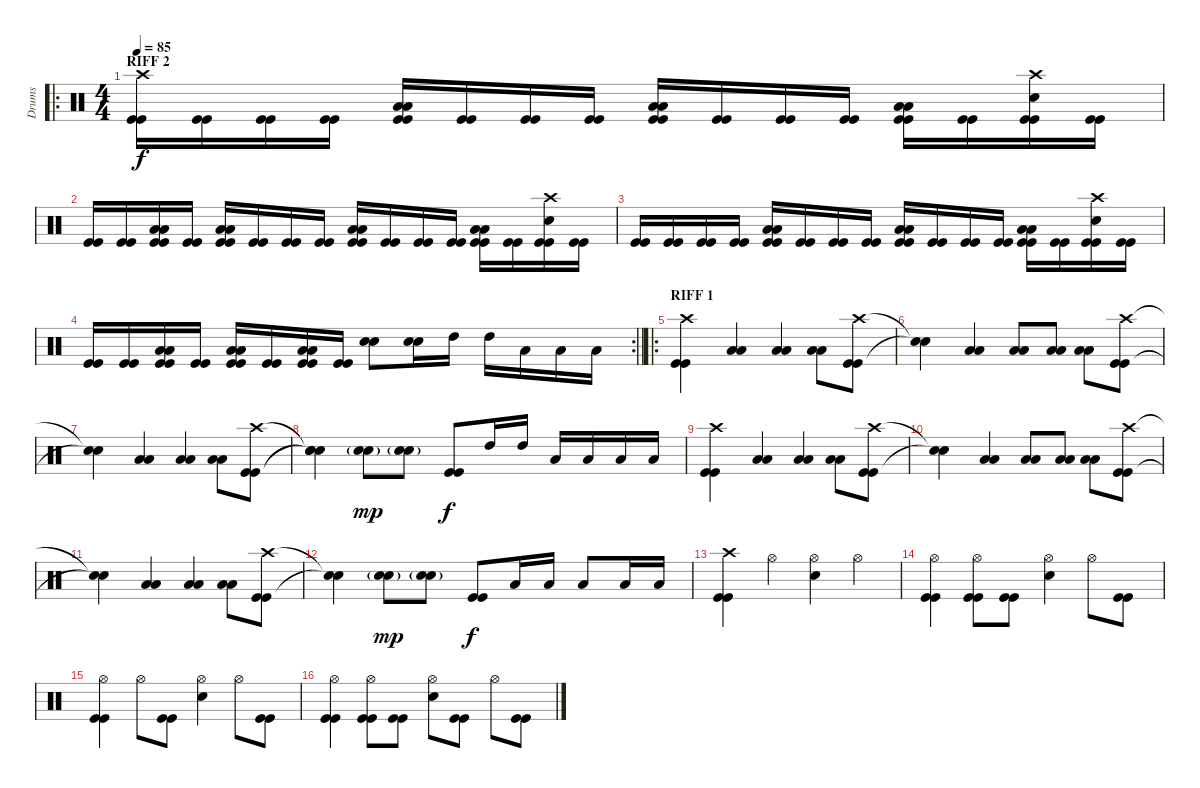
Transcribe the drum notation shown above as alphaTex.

\track ("Drums" "Drums") {instrument percussion}
\staff {score}
\articulation defaults
\ro
\ts (4 4)
\section ("" "RIFF 2")
\tempo 85
\clef neutral
\ks c
("Crash high (hit)" "Kick (hit)" "Kick (hit)").16{dy f} ("Kick (hit)" "Kick (hit)").16 ("Kick (hit)" "Kick (hit)").16 ("Kick (hit)" "Kick (hit)").16 ("Low Floor Tom (hit)" "Low Tom (hit)" "Kick (hit)" "Kick (hit)").16 ("Kick (hit)" "Kick (hit)").16 ("Kick (hit)" "Kick (hit)").16 ("Kick (hit)" "Kick (hit)").16 ("Low Floor Tom (hit)" "Low Tom (hit)" "Kick (hit)" "Kick (hit)").16 ("Kick (hit)" "Kick (hit)").16 ("Kick (hit)" "Kick (hit)").16 ("Kick (hit)" "Kick (hit)").16 ("Low Floor Tom (hit)" "Low Tom (hit)" "Kick (hit)" "Kick (hit)").16 ("Kick (hit)" "Kick (hit)").16 ("Crash high (hit)" "Snare (hit) 2" "Kick (hit)" "Kick (hit)").16 ("Kick (hit)" "Kick (hit)").16 |
("Kick (hit)" "Kick (hit)").16 ("Kick (hit)" "Kick (hit)").16 ("Low Floor Tom (hit)" "Low Tom (hit)" "Kick (hit)" "Kick (hit)").16 ("Kick (hit)" "Kick (hit)").16 ("Low Floor Tom (hit)" "Low Tom (hit)" "Kick (hit)" "Kick (hit)").16 ("Kick (hit)" "Kick (hit)").16 ("Kick (hit)" "Kick (hit)").16 ("Kick (hit)" "Kick (hit)").16 ("Low Floor Tom (hit)" "Low Tom (hit)" "Kick (hit)" "Kick (hit)").16 ("Kick (hit)" "Kick (hit)").16 ("Kick (hit)" "Kick (hit)").16 ("Kick (hit)" "Kick (hit)").16 ("Low Floor Tom (hit)" "Low Tom (hit)" "Kick (hit)" "Kick (hit)").16 ("Kick (hit)" "Kick (hit)").16 ("Crash high (hit)" "Snare (hit) 2" "Kick (hit)" "Kick (hit)").16 ("Kick (hit)" "Kick (hit)").16 |
("Kick (hit)" "Kick (hit)").16 ("Kick (hit)" "Kick (hit)").16 ("Kick (hit)" "Kick (hit)").16 ("Kick (hit)" "Kick (hit)").16 ("Low Floor Tom (hit)" "Low Tom (hit)" "Kick (hit)" "Kick (hit)").16 ("Kick (hit)" "Kick (hit)").16 ("Kick (hit)" "Kick (hit)").16 ("Kick (hit)" "Kick (hit)").16 ("Low Floor Tom (hit)" "Low Tom (hit)" "Kick (hit)" "Kick (hit)").16 ("Kick (hit)" "Kick (hit)").16 ("Kick (hit)" "Kick (hit)").16 ("Kick (hit)" "Kick (hit)").16 ("Low Floor Tom (hit)" "Low Tom (hit)" "Kick (hit)" "Kick (hit)").16 ("Kick (hit)" "Kick (hit)").16 ("Crash high (hit)" "Snare (hit) 2" "Kick (hit)" "Kick (hit)").16 ("Kick (hit)" "Kick (hit)").16 |
\rc 2
\barLineRight lightlight
("Kick (hit)" "Kick (hit)").16 ("Kick (hit)" "Kick (hit)").16 ("Low Floor Tom (hit)" "Low Tom (hit)" "Kick (hit)" "Kick (hit)").16 ("Kick (hit)" "Kick (hit)").16 ("Low Floor Tom (hit)" "Low Tom (hit)" "Kick (hit)" "Kick (hit)").16 ("Kick (hit)" "Kick (hit)").16 ("Low Floor Tom (hit)" "Low Tom (hit)" "Kick (hit)" "Kick (hit)").16 ("Kick (hit)" "Kick (hit)").16 ("Snare (hit) 2" "Snare (hit) 2").8 ("Snare (hit) 2" "Snare (hit) 2").16 "High Tom (hit)".16 "High Tom (hit)".16 "Low Tom (hit)".16 "Low Tom (hit)".16 "Low Tom (hit)".16 |
\ro
\section ("" "RIFF 1")
("Crash high (hit)" "Kick (hit)" "Kick (hit)").4 ("Low Floor Tom (hit)" "Low Tom (hit)").4 ("Low Floor Tom (hit)" "Low Tom (hit)").4 ("Low Tom (hit)" "Low Floor Tom (hit)").8 ("Crash high (hit)" "Kick (hit)" "Kick (hit)").8 |
("Snare (hit)"{t} "Snare (hit)"{t}).4 ("Low Floor Tom (hit)" "Low Tom (hit)").4 ("Low Floor Tom (hit)" "Low Tom (hit)").8 ("Low Floor Tom (hit)" "Low Tom (hit)").8 ("Low Floor Tom (hit)" "Low Tom (hit)").8 ("Crash high (hit)" "Kick (hit)" "Kick (hit)").8 |
("Snare (hit)"{t} "Snare (hit)"{t}).4 ("Low Floor Tom (hit)" "Low Tom (hit)").4 ("Low Floor Tom (hit)" "Low Tom (hit)").4 ("Low Floor Tom (hit)" "Low Tom (hit)").8 ("Crash high (hit)" "Kick (hit)" "Kick (hit)").8 |
("Snare (hit)"{t} "Snare (hit)"{t} "Snare (hit)"{t}).4 ("Snare (hit) 2"{g} "Snare (hit) 2").8{dy mp} ("Snare (hit) 2"{g} "Snare (hit) 2").8 ("Kick (hit)" "Kick (hit)").8{dy f} "High Tom (hit)".16 "High Tom (hit)".16 "Low Tom (hit)".16 "Low Tom (hit)".16 "Low Floor Tom (hit)".16 "Low Floor Tom (hit)".16 |
("Crash high (hit)" "Kick (hit)" "Kick (hit)").4 ("Low Floor Tom (hit)" "Low Tom (hit)").4 ("Low Floor Tom (hit)" "Low Tom (hit)").4 ("Low Tom (hit)" "Low Floor Tom (hit)").8 ("Crash high (hit)" "Kick (hit)" "Kick (hit)").8 |
("Snare (hit)"{t} "Snare (hit)"{t}).4 ("Low Floor Tom (hit)" "Low Tom (hit)").4 ("Low Floor Tom (hit)" "Low Tom (hit)").8 ("Low Floor Tom (hit)" "Low Tom (hit)").8 ("Low Floor Tom (hit)" "Low Tom (hit)").8 ("Crash high (hit)" "Kick (hit)" "Kick (hit)").8 |
("Snare (hit)"{t} "Snare (hit)"{t}).4 ("Low Floor Tom (hit)" "Low Tom (hit)").4 ("Low Floor Tom (hit)" "Low Tom (hit)").4 ("Low Floor Tom (hit)" "Low Tom (hit)").8 ("Crash high (hit)" "Kick (hit)" "Kick (hit)").8 |
("Snare (hit)"{t} "Snare (hit)"{t}).4 ("Snare (hit) 2"{g} "Snare (hit) 2").8{dy mp} ("Snare (hit) 2"{g} "Snare (hit) 2").8 ("Kick (hit)" "Kick (hit)").8{dy f} "Low Tom (hit)".16 "Low Tom (hit)".16 "Low Tom (hit)".8 "Low Floor Tom (hit)".16 "Low Floor Tom (hit)".16 |
("Crash high (hit)" "Kick (hit)" "Kick (hit)").4 "Hi-Hat (open)".4 ("Hi-Hat (open)" "Snare (hit) 2").4 "Hi-Hat (open)".4 |
("Hi-Hat (open)" "Kick (hit)" "Kick (hit)").4 ("Hi-Hat (open)" "Kick (hit)" "Kick (hit)").8 ("Kick (hit)" "Kick (hit)").8 ("Hi-Hat (open)" "Snare (hit) 2").4 "Hi-Hat (open)".8 ("Kick (hit)" "Kick (hit)").8 |
("Hi-Hat (open)" "Kick (hit)" "Kick (hit)").4 "Hi-Hat (open)".8 ("Kick (hit)" "Kick (hit)").8 ("Hi-Hat (open)" "Snare (hit) 2").4 "Hi-Hat (open)".8 ("Kick (hit)" "Kick (hit)").8 |
("Hi-Hat (open)" "Kick (hit)" "Kick (hit)").4 ("Hi-Hat (open)" "Kick (hit)" "Kick (hit)").8 ("Kick (hit)" "Kick (hit)").8 ("Hi-Hat (open)" "Snare (hit) 2").8 ("Kick (hit)" "Kick (hit)").8 "Hi-Hat (open)".8 ("Kick (hit)" "Kick (hit)").8
